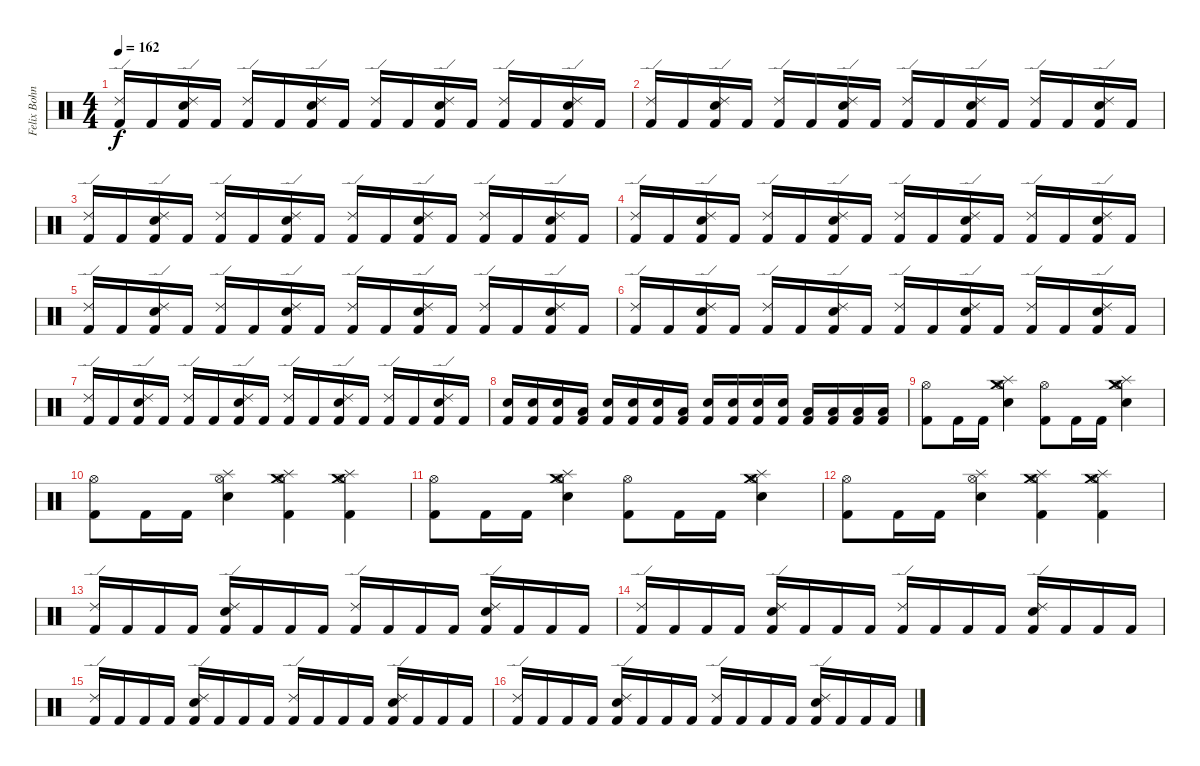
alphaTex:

\track ("Felix Bohnke" "Felix Bohn") {instrument percussion}
\staff {score}
\articulation defaults
\ts (4 4)
\tempo 162
\clef neutral
\ks c
("Ride (edge) 2" "Kick (hit) 2").16{dy f} "Kick (hit) 2".16 ("Electric Snare (hit)" "Ride (edge) 2" "Kick (hit) 2").16 "Kick (hit) 2".16 ("Ride (edge) 2" "Kick (hit) 2").16 "Kick (hit) 2".16 ("Electric Snare (hit)" "Ride (edge) 2" "Kick (hit) 2").16 "Kick (hit) 2".16 ("Ride (edge) 2" "Kick (hit) 2").16 "Kick (hit) 2".16 ("Electric Snare (hit)" "Ride (edge) 2" "Kick (hit) 2").16 "Kick (hit) 2".16 ("Ride (edge) 2" "Kick (hit) 2").16 "Kick (hit) 2".16 ("Electric Snare (hit)" "Ride (edge) 2" "Kick (hit) 2").16 "Kick (hit) 2".16 |
("Ride (edge) 2" "Kick (hit) 2").16 "Kick (hit) 2".16 ("Electric Snare (hit)" "Ride (edge) 2" "Kick (hit) 2").16 "Kick (hit) 2".16 ("Ride (edge) 2" "Kick (hit) 2").16 "Kick (hit) 2".16 ("Electric Snare (hit)" "Ride (edge) 2" "Kick (hit) 2").16 "Kick (hit) 2".16 ("Ride (edge) 2" "Kick (hit) 2").16 "Kick (hit) 2".16 ("Electric Snare (hit)" "Ride (edge) 2" "Kick (hit) 2").16 "Kick (hit) 2".16 ("Ride (edge) 2" "Kick (hit) 2").16 "Kick (hit) 2".16 ("Electric Snare (hit)" "Ride (edge) 2" "Kick (hit) 2").16 "Kick (hit) 2".16 |
("Ride (edge) 2" "Kick (hit) 2").16 "Kick (hit) 2".16 ("Electric Snare (hit)" "Ride (edge) 2" "Kick (hit) 2").16 "Kick (hit) 2".16 ("Ride (edge) 2" "Kick (hit) 2").16 "Kick (hit) 2".16 ("Electric Snare (hit)" "Ride (edge) 2" "Kick (hit) 2").16 "Kick (hit) 2".16 ("Ride (edge) 2" "Kick (hit) 2").16 "Kick (hit) 2".16 ("Electric Snare (hit)" "Ride (edge) 2" "Kick (hit) 2").16 "Kick (hit) 2".16 ("Ride (edge) 2" "Kick (hit) 2").16 "Kick (hit) 2".16 ("Electric Snare (hit)" "Ride (edge) 2" "Kick (hit) 2").16 "Kick (hit) 2".16 |
("Ride (edge) 2" "Kick (hit) 2").16 "Kick (hit) 2".16 ("Electric Snare (hit)" "Ride (edge) 2" "Kick (hit) 2").16 "Kick (hit) 2".16 ("Ride (edge) 2" "Kick (hit) 2").16 "Kick (hit) 2".16 ("Electric Snare (hit)" "Ride (edge) 2" "Kick (hit) 2").16 "Kick (hit) 2".16 ("Ride (edge) 2" "Kick (hit) 2").16 "Kick (hit) 2".16 ("Electric Snare (hit)" "Ride (edge) 2" "Kick (hit) 2").16 "Kick (hit) 2".16 ("Ride (edge) 2" "Kick (hit) 2").16 "Kick (hit) 2".16 ("Electric Snare (hit)" "Ride (edge) 2" "Kick (hit) 2").16 "Kick (hit) 2".16 |
("Ride (edge) 2" "Kick (hit) 2").16 "Kick (hit) 2".16 ("Electric Snare (hit)" "Ride (edge) 2" "Kick (hit) 2").16 "Kick (hit) 2".16 ("Ride (edge) 2" "Kick (hit) 2").16 "Kick (hit) 2".16 ("Electric Snare (hit)" "Ride (edge) 2" "Kick (hit) 2").16 "Kick (hit) 2".16 ("Ride (edge) 2" "Kick (hit) 2").16 "Kick (hit) 2".16 ("Electric Snare (hit)" "Ride (edge) 2" "Kick (hit) 2").16 "Kick (hit) 2".16 ("Ride (edge) 2" "Kick (hit) 2").16 "Kick (hit) 2".16 ("Electric Snare (hit)" "Ride (edge) 2" "Kick (hit) 2").16 "Kick (hit) 2".16 |
("Ride (edge) 2" "Kick (hit) 2").16 "Kick (hit) 2".16 ("Electric Snare (hit)" "Ride (edge) 2" "Kick (hit) 2").16 "Kick (hit) 2".16 ("Ride (edge) 2" "Kick (hit) 2").16 "Kick (hit) 2".16 ("Electric Snare (hit)" "Ride (edge) 2" "Kick (hit) 2").16 "Kick (hit) 2".16 ("Ride (edge) 2" "Kick (hit) 2").16 "Kick (hit) 2".16 ("Electric Snare (hit)" "Ride (edge) 2" "Kick (hit) 2").16 "Kick (hit) 2".16 ("Ride (edge) 2" "Kick (hit) 2").16 "Kick (hit) 2".16 ("Electric Snare (hit)" "Ride (edge) 2" "Kick (hit) 2").16 "Kick (hit) 2".16 |
("Ride (edge) 2" "Kick (hit) 2").16 "Kick (hit) 2".16 ("Electric Snare (hit)" "Ride (edge) 2" "Kick (hit) 2").16 "Kick (hit) 2".16 ("Ride (edge) 2" "Kick (hit) 2").16 "Kick (hit) 2".16 ("Electric Snare (hit)" "Ride (edge) 2" "Kick (hit) 2").16 "Kick (hit) 2".16 ("Ride (edge) 2" "Kick (hit) 2").16 "Kick (hit) 2".16 ("Electric Snare (hit)" "Ride (edge) 2" "Kick (hit) 2").16 "Kick (hit) 2".16 ("Ride (edge) 2" "Kick (hit) 2").16 "Kick (hit) 2".16 ("Electric Snare (hit)" "Ride (edge) 2" "Kick (hit) 2").16 "Kick (hit) 2".16 |
("Electric Snare (hit)" "Kick (hit) 2").16 ("Electric Snare (hit)" "Kick (hit) 2").16 ("Electric Snare (hit)" "Kick (hit) 2").16 ("Low Tom (hit)" "Kick (hit) 2").16 ("Electric Snare (hit)" "Kick (hit) 2").16 ("Electric Snare (hit)" "Kick (hit) 2").16 ("Electric Snare (hit)" "Kick (hit) 2").16 ("Low Tom (hit)" "Kick (hit) 2").16 ("Electric Snare (hit)" "Kick (hit) 2").16 ("Electric Snare (hit)" "Kick (hit) 2").16 ("Electric Snare (hit)" "Kick (hit) 2").16 ("Electric Snare (hit)" "Kick (hit) 2").16 ("Low Tom (hit)" "Kick (hit) 2").16 ("Low Tom (hit)" "Kick (hit) 2").16 ("Low Tom (hit)" "Kick (hit) 2").16 ("Low Tom (hit)" "Kick (hit) 2").16 |
("Hi-Hat (open)" "Kick (hit) 2").8 "Kick (hit) 2".16 "Kick (hit) 2".16 ("Crash medium (hit)" "Electric Snare (hit)" "Splash (hit)" "Hi-Hat (open)").4 ("Hi-Hat (open)" "Kick (hit) 2").8 "Kick (hit) 2".16 "Kick (hit) 2".16 ("Crash medium (hit)" "Electric Snare (hit)" "Splash (hit)" "Hi-Hat (open)").4 |
("Hi-Hat (open)" "Kick (hit) 2").8 "Kick (hit) 2".16 "Kick (hit) 2".16 ("Electric Snare (hit)" "Splash (hit)" "Hi-Hat (open)").4 ("Crash medium (hit)" "Splash (hit)" "Hi-Hat (open)" "Kick (hit) 2").4 ("Crash medium (hit)" "Hi-Hat (open)" "Splash (hit)" "Kick (hit) 2").4 |
("Hi-Hat (open)" "Kick (hit) 2").8 "Kick (hit) 2".16 "Kick (hit) 2".16 ("Crash medium (hit)" "Electric Snare (hit)" "Splash (hit)" "Hi-Hat (open)").4 ("Hi-Hat (open)" "Kick (hit) 2").8 "Kick (hit) 2".16 "Kick (hit) 2".16 ("Crash medium (hit)" "Electric Snare (hit)" "Splash (hit)" "Hi-Hat (open)").4 |
("Hi-Hat (open)" "Kick (hit) 2").8 "Kick (hit) 2".16 "Kick (hit) 2".16 ("Electric Snare (hit)" "Splash (hit)" "Hi-Hat (open)").4 ("Crash medium (hit)" "Splash (hit)" "Hi-Hat (open)" "Kick (hit) 2").4 ("Crash medium (hit)" "Hi-Hat (open)" "Splash (hit)" "Kick (hit) 2").4 |
("Ride (edge) 2" "Kick (hit) 2").16 "Kick (hit) 2".16 "Kick (hit) 2".16 "Kick (hit) 2".16 ("Electric Snare (hit)" "Ride (edge) 2" "Kick (hit) 2").16 "Kick (hit) 2".16 "Kick (hit) 2".16 "Kick (hit) 2".16 ("Ride (edge) 2" "Kick (hit) 2").16 "Kick (hit) 2".16 "Kick (hit) 2".16 "Kick (hit) 2".16 ("Electric Snare (hit)" "Ride (edge) 2" "Kick (hit) 2").16 "Kick (hit) 2".16 "Kick (hit) 2".16 "Kick (hit) 2".16 |
("Ride (edge) 2" "Kick (hit) 2").16 "Kick (hit) 2".16 "Kick (hit) 2".16 "Kick (hit) 2".16 ("Electric Snare (hit)" "Ride (edge) 2" "Kick (hit) 2").16 "Kick (hit) 2".16 "Kick (hit) 2".16 "Kick (hit) 2".16 ("Ride (edge) 2" "Kick (hit) 2").16 "Kick (hit) 2".16 "Kick (hit) 2".16 "Kick (hit) 2".16 ("Electric Snare (hit)" "Ride (edge) 2" "Kick (hit) 2").16 "Kick (hit) 2".16 "Kick (hit) 2".16 "Kick (hit) 2".16 |
("Ride (edge) 2" "Kick (hit) 2").16 "Kick (hit) 2".16 "Kick (hit) 2".16 "Kick (hit) 2".16 ("Electric Snare (hit)" "Ride (edge) 2" "Kick (hit) 2").16 "Kick (hit) 2".16 "Kick (hit) 2".16 "Kick (hit) 2".16 ("Ride (edge) 2" "Kick (hit) 2").16 "Kick (hit) 2".16 "Kick (hit) 2".16 "Kick (hit) 2".16 ("Electric Snare (hit)" "Ride (edge) 2" "Kick (hit) 2").16 "Kick (hit) 2".16 "Kick (hit) 2".16 "Kick (hit) 2".16 |
("Ride (edge) 2" "Kick (hit) 2").16 "Kick (hit) 2".16 "Kick (hit) 2".16 "Kick (hit) 2".16 ("Electric Snare (hit)" "Ride (edge) 2" "Kick (hit) 2").16 "Kick (hit) 2".16 "Kick (hit) 2".16 "Kick (hit) 2".16 ("Ride (edge) 2" "Kick (hit) 2").16 "Kick (hit) 2".16 "Kick (hit) 2".16 "Kick (hit) 2".16 ("Electric Snare (hit)" "Ride (edge) 2" "Kick (hit) 2").16 "Kick (hit) 2".16 "Kick (hit) 2".16 "Kick (hit) 2".16
